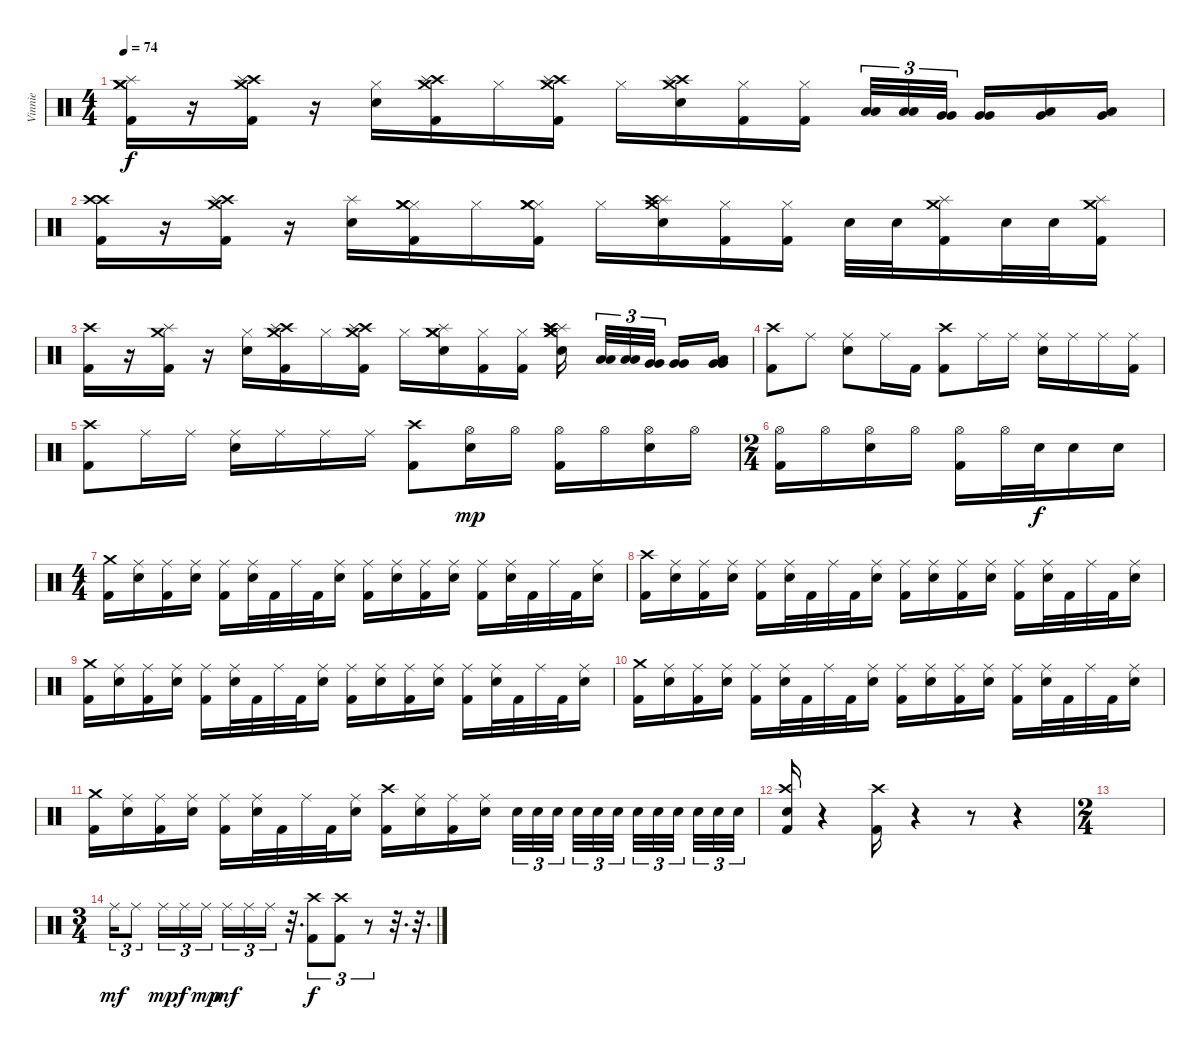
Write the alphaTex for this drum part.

\track ("Vinnie" "Vinnie") {instrument percussion}
\staff {score}
\articulation defaults
\ts (4 4)
\tempo 74
\clef neutral
\ks c
("Crash medium (hit)" "Crash medium (hit)" "Splash (hit)" "Kick (hit) 2").16{dy f} r.16 ("Crash medium (hit)" "Crash high (hit)" "Splash (hit)" "Kick (hit) 2").16 r.16 ("Hi-Hat (closed)" "Electric Snare (hit)").16 ("Crash high (hit)" "Splash (hit)" "Crash medium (hit)" "Kick (hit) 2").16 "Hi-Hat (closed)".16 ("Crash high (hit)" "Splash (hit)" "Crash medium (hit)" "Kick (hit) 2").16 "Hi-Hat (closed)".16 ("Crash high (hit)" "Splash (hit)" "Electric Snare (hit)" "Crash medium (hit)").16 ("Hi-Hat (closed)" "Kick (hit) 2").16 ("Hi-Hat (closed)" "Kick (hit) 2").16 ("Low Tom (hit)" "Low Tom (hit)").32{tu (3 2)} ("Low Tom (hit)" "Low Tom (hit)").32{tu (3 2)} ("Very Low Tom (hit)" "Very Low Tom (hit)").32{tu (3 2)} ("Very Low Tom (hit)" "Very Low Tom (hit)").16 ("Very Low Tom (hit)" "Low Floor Tom (hit)").16 ("Very Low Tom (hit)" "Low Floor Tom (hit)").16 |
("Crash high (hit)" "Crash high (hit)" "Kick (hit) 2").16 r.16 ("Crash medium (hit)" "Crash high (hit)" "Splash (hit)" "Kick (hit) 2").16 r.16 ("Splash (hit)" "Electric Snare (hit)").16 ("Hi-Hat (closed)" "Crash medium (hit)" "Crash medium (hit)" "Kick (hit) 2").16 "Hi-Hat (closed)".16 ("Hi-Hat (closed)" "Crash medium (hit)" "Crash medium (hit)" "Kick (hit) 2").16 "Hi-Hat (closed)".16 ("Crash medium (hit)" "Splash (hit)" "Electric Snare (hit)" "Crash high (hit)").16 ("Hi-Hat (closed)" "Kick (hit) 2").16 ("Hi-Hat (closed)" "Kick (hit) 2").16 "Electric Snare (hit)".32 "Electric Snare (hit)".32 ("Crash medium (hit)" "Splash (hit)" "Kick (hit) 2").16 "Electric Snare (hit)".32 "Electric Snare (hit)".32 ("Crash medium (hit)" "Splash (hit)" "Kick (hit) 2").16 |
("Crash high (hit)" "Kick (hit) 2").16 r.16 ("Crash medium (hit)" "Splash (hit)" "Kick (hit) 2").16 r.16 ("Hi-Hat (closed)" "Electric Snare (hit)").16 ("Crash high (hit)" "Crash medium (hit)" "Splash (hit)" "Kick (hit) 2").16 "Hi-Hat (closed)".16 ("Crash high (hit)" "Crash medium (hit)" "Splash (hit)" "Kick (hit) 2").16 "Hi-Hat (closed)".16 ("Crash medium (hit)" "Crash medium (hit)" "Electric Snare (hit)" "Splash (hit)").16 ("Hi-Hat (closed)" "Kick (hit) 2").16 ("Hi-Hat (closed)" "Kick (hit) 2").16 ("Crash medium (hit)" "Crash medium (hit)" "Electric Snare (hit)" "Splash (hit)" "Crash high (hit)" "Crash high (hit)").16 ("Low Tom (hit)" "Low Tom (hit)").32{tu (3 2)} ("Low Tom (hit)" "Low Tom (hit)").32{tu (3 2)} ("Very Low Tom (hit)" "Very Low Tom (hit)").32{tu (3 2)} ("Very Low Tom (hit)" "Very Low Tom (hit)").16 ("Low Floor Tom (hit)" "Very Low Tom (hit)" "Very Low Tom (hit)").16 |
("Crash high (hit)" "Kick (hit) 2").8 "Ride (middle)".8 ("Ride (middle)" "Electric Snare (hit)").8 "Ride (middle)".16 "Kick (hit) 2".16 ("Crash high (hit)" "Kick (hit) 2").8 "Ride (middle)".16 "Ride (middle)".16 ("Ride (middle)" "Electric Snare (hit)").16 "Ride (middle)".16 "Ride (middle)".16 ("Ride (middle)" "Kick (hit) 2").16 |
("Crash high (hit)" "Kick (hit) 2").8 "Ride (middle)".16 "Ride (middle)".16 ("Ride (middle)" "Electric Snare (hit)").16 "Ride (middle)".16 "Ride (middle)".16 "Ride (middle)".16 ("Crash high (hit)" "Kick (hit) 2").8 ("Hi-Hat (open)" "Electric Snare (hit)").16{dy mp} "Hi-Hat (open)".16 ("Hi-Hat (open)" "Kick (hit) 2").16 "Hi-Hat (open)".16 ("Hi-Hat (open)" "Electric Snare (hit)").16 "Hi-Hat (open)".16 |
\ts (2 4)
("Hi-Hat (open)" "Kick (hit) 2").16 "Hi-Hat (open)".16 ("Hi-Hat (open)" "Electric Snare (hit)").16 "Hi-Hat (open)".16 ("Hi-Hat (open)" "Kick (hit) 2").16 "Hi-Hat (open)".32 "Electric Snare (hit)".32{dy f} "Electric Snare (hit)".16 "Electric Snare (hit)".16 |
\ts (4 4)
("Crash medium (hit)" "Kick (hit) 2").16 ("Ride (middle)" "Electric Snare (hit)").16 ("Ride (middle)" "Kick (hit) 2").16 ("Ride (middle)" "Electric Snare (hit)").16 ("Ride (middle)" "Kick (hit) 2").16 ("Ride (middle)" "Electric Snare (hit)").32 "Kick (hit) 2".32 "Ride (middle)".32 "Kick (hit) 2".32 ("Ride (middle)" "Electric Snare (hit)").16 ("Ride (middle)" "Kick (hit) 2").16 ("Ride (middle)" "Electric Snare (hit)").16 ("Ride (middle)" "Kick (hit) 2").16 ("Ride (middle)" "Electric Snare (hit)").16 ("Ride (middle)" "Kick (hit) 2").16 ("Ride (middle)" "Electric Snare (hit)").32 "Kick (hit) 2".32 "Ride (middle)".32 "Kick (hit) 2".32 ("Ride (middle)" "Electric Snare (hit)").16 |
("Crash high (hit)" "Kick (hit) 2").16 ("Ride (middle)" "Electric Snare (hit)").16 ("Ride (middle)" "Kick (hit) 2").16 ("Ride (middle)" "Electric Snare (hit)").16 ("Ride (middle)" "Kick (hit) 2").16 ("Ride (middle)" "Electric Snare (hit)").32 "Kick (hit) 2".32 "Ride (middle)".32 "Kick (hit) 2".32 ("Ride (middle)" "Electric Snare (hit)").16 ("Ride (middle)" "Kick (hit) 2").16 ("Ride (middle)" "Electric Snare (hit)").16 ("Ride (middle)" "Kick (hit) 2").16 ("Ride (middle)" "Electric Snare (hit)").16 ("Ride (middle)" "Kick (hit) 2").16 ("Ride (middle)" "Electric Snare (hit)").32 "Kick (hit) 2".32 "Ride (middle)".32 "Kick (hit) 2".32 ("Ride (middle)" "Electric Snare (hit)").16 |
("Crash medium (hit)" "Kick (hit) 2").16 ("Ride (middle)" "Electric Snare (hit)").16 ("Ride (middle)" "Kick (hit) 2").16 ("Ride (middle)" "Electric Snare (hit)").16 ("Ride (middle)" "Kick (hit) 2").16 ("Ride (middle)" "Electric Snare (hit)").32 "Kick (hit) 2".32 "Ride (middle)".32 "Kick (hit) 2".32 ("Ride (middle)" "Electric Snare (hit)").16 ("Ride (middle)" "Kick (hit) 2").16 ("Ride (middle)" "Electric Snare (hit)").16 ("Ride (middle)" "Kick (hit) 2").16 ("Ride (middle)" "Electric Snare (hit)").16 ("Ride (middle)" "Kick (hit) 2").16 ("Ride (middle)" "Electric Snare (hit)").32 "Kick (hit) 2".32 "Ride (middle)".32 "Kick (hit) 2".32 ("Ride (middle)" "Electric Snare (hit)").16 |
("Crash medium (hit)" "Kick (hit) 2").16 ("Ride (middle)" "Electric Snare (hit)").16 ("Ride (middle)" "Kick (hit) 2").16 ("Ride (middle)" "Electric Snare (hit)").16 ("Ride (middle)" "Kick (hit) 2").16 ("Ride (middle)" "Electric Snare (hit)").32 "Kick (hit) 2".32 "Ride (middle)".32 "Kick (hit) 2".32 ("Ride (middle)" "Electric Snare (hit)").16 ("Ride (middle)" "Kick (hit) 2").16 ("Ride (middle)" "Electric Snare (hit)").16 ("Ride (middle)" "Kick (hit) 2").16 ("Ride (middle)" "Electric Snare (hit)").16 ("Ride (middle)" "Kick (hit) 2").16 ("Ride (middle)" "Electric Snare (hit)").32 "Kick (hit) 2".32 "Ride (middle)".32 "Kick (hit) 2".32 ("Ride (middle)" "Electric Snare (hit)").16 |
("Crash medium (hit)" "Kick (hit) 2").16 ("Ride (middle)" "Electric Snare (hit)").16 ("Ride (middle)" "Kick (hit) 2").16 ("Ride (middle)" "Electric Snare (hit)").16 ("Ride (middle)" "Kick (hit) 2").16 ("Ride (middle)" "Electric Snare (hit)").32 "Kick (hit) 2".32 "Ride (middle)".32 "Kick (hit) 2".32 ("Ride (middle)" "Electric Snare (hit)").16 ("Crash high (hit)" "Kick (hit) 2").16 ("Ride (middle)" "Electric Snare (hit)").16 ("Ride (middle)" "Kick (hit) 2").16 ("Ride (middle)" "Electric Snare (hit)").16 "Electric Snare (hit)".32{tu (3 2)} "Electric Snare (hit)".32{tu (3 2)} "Electric Snare (hit)".32{tu (3 2)} "Electric Snare (hit)".32{tu (3 2)} "Electric Snare (hit)".32{tu (3 2)} "Electric Snare (hit)".32{tu (3 2)} "Electric Snare (hit)".32{tu (3 2)} "Electric Snare (hit)".32{tu (3 2)} "Electric Snare (hit)".32{tu (3 2)} "Electric Snare (hit)".32{tu (3 2)} "Electric Snare (hit)".32{tu (3 2)} "Electric Snare (hit)".32{tu (3 2)} |
("Crash high (hit)" "Electric Snare (hit)" "Kick (hit) 2").16 r.4 ("Crash high (hit)" "Kick (hit) 2").16 r.4 r.8 r.4 |
\ts (2 4)
|
\ts (3 4)
"Ride (middle)".16{tu (3 2) dy mf} "Ride (middle)".8{tu (3 2)} "Ride (middle)".16{tu (3 2) dy mp} "Ride (middle)".16{tu (3 2) dy f} "Ride (middle)".16{tu (3 2) dy mp} "Ride (middle)".16{tu (3 2) dy mf} "Ride (middle)".16{tu (3 2)} "Ride (middle)".16{tu (3 2)} r.32{d} ("Crash high (hit)" "Kick (hit) 2").8{tu (3 2) dy f} ("Crash high (hit)" "Kick (hit) 2").8{tu (3 2)} r.8{tu (3 2)} r.32{d} r.32{d tu (3 2)}
